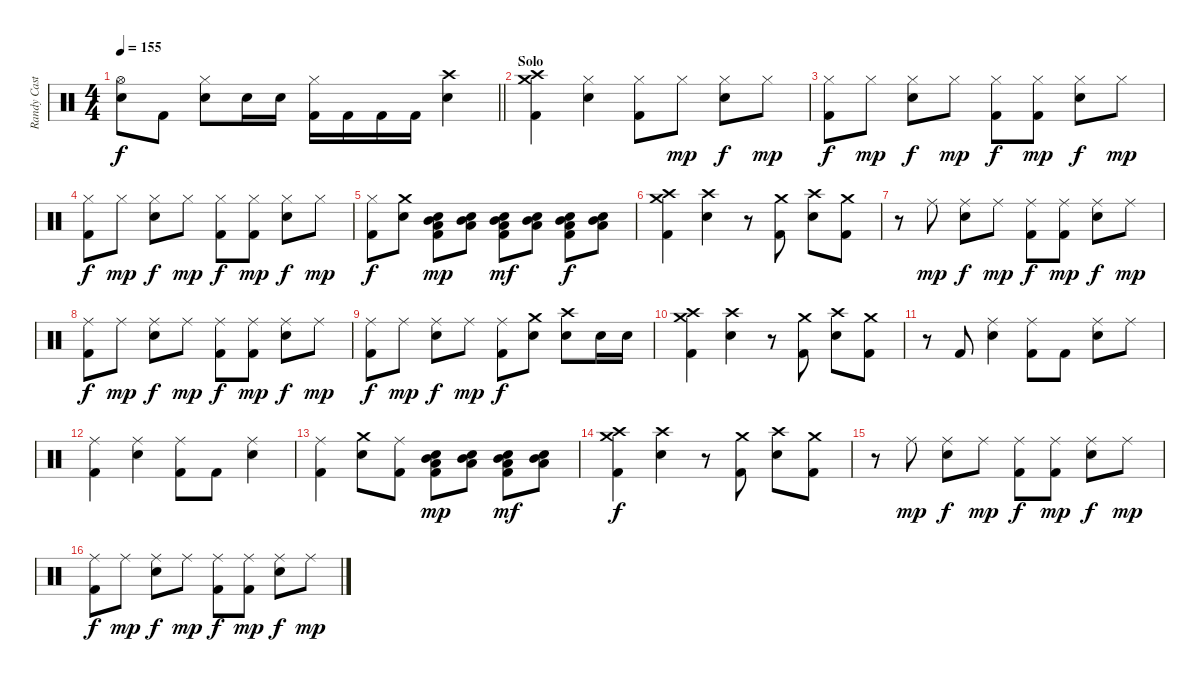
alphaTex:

\track ("Randy Castillo - Drums" "Randy Cast") {instrument percussion}
\staff {score}
\articulation defaults
\ts (4 4)
\tempo 155
\clef neutral
\barLineRight lightlight
\ks c
("Hi-Hat (open)" "Snare (hit) 2").8{dy f} "Kick (hit) 2".8 ("Hi-Hat (closed)" "Snare (hit) 2").8 "Snare (hit) 2".16 "Snare (hit) 2".16 ("Hi-Hat (closed)" "Kick (hit) 2").16 "Kick (hit) 2".16 "Kick (hit) 2".16 "Kick (hit) 2".16 ("Crash high (hit)" "Snare (hit) 2").4 |
\section ("" "Solo")
("Crash medium (hit)" "Crash high (hit)" "Kick (hit) 2").4 ("Hi-Hat (closed)" "Snare (hit) 2").4 ("Hi-Hat (closed)" "Kick (hit) 2").8 "Hi-Hat (closed)".8{dy mp} ("Hi-Hat (closed)" "Snare (hit) 2").8{dy f} "Hi-Hat (closed)".8{dy mp} |
("Hi-Hat (closed)" "Kick (hit) 2").8{dy f} "Hi-Hat (closed)".8{dy mp} ("Hi-Hat (closed)" "Snare (hit) 2").8{dy f} "Hi-Hat (closed)".8{dy mp} ("Hi-Hat (closed)" "Kick (hit) 2").8{dy f} ("Hi-Hat (closed)" "Kick (hit) 2").8{dy mp} ("Hi-Hat (closed)" "Snare (hit) 2").8{dy f} "Hi-Hat (closed)".8{dy mp} |
("Hi-Hat (closed)" "Kick (hit) 2").8{dy f} "Hi-Hat (closed)".8{dy mp} ("Hi-Hat (closed)" "Snare (hit) 2").8{dy f} "Hi-Hat (closed)".8{dy mp} ("Hi-Hat (closed)" "Kick (hit) 2").8{dy f} ("Hi-Hat (closed)" "Kick (hit) 2").8{dy mp} ("Hi-Hat (closed)" "Snare (hit) 2").8{dy f} "Hi-Hat (closed)".8{dy mp} |
("Hi-Hat (closed)" "Kick (hit) 2").8{dy f} ("Crash medium (hit)" "Snare (hit) 2").8 ("Mid Tom (hit)" "Low Tom (hit)" "Snare (hit) 2" "Kick (hit) 2").8{dy mp} ("Mid Tom (hit)" "Low Tom (hit)" "Snare (hit) 2").8 ("Mid Tom (hit)" "Low Tom (hit)" "Snare (hit) 2" "Kick (hit) 2").8{dy mf} ("Mid Tom (hit)" "Low Tom (hit)" "Snare (hit) 2").8 ("Mid Tom (hit)" "Low Tom (hit)" "Snare (hit) 2" "Kick (hit) 2").8{dy f} ("Mid Tom (hit)" "Low Tom (hit)" "Snare (hit) 2").8 |
("Crash medium (hit)" "Crash high (hit)" "Kick (hit) 2").4 ("Crash high (hit)" "Snare (hit) 2").4 r.8 ("Crash medium (hit)" "Kick (hit) 2").8 ("Crash high (hit)" "Snare (hit) 2").8 ("Crash medium (hit)" "Kick (hit) 2").8 |
r.8 "Ride (middle)".8{dy mp} ("Ride (middle)" "Snare (hit) 2").8{dy f} "Ride (middle)".8{dy mp} ("Ride (middle)" "Kick (hit) 2").8{dy f} ("Ride (middle)" "Kick (hit) 2").8{dy mp} ("Ride (middle)" "Snare (hit) 2").8{dy f} "Ride (middle)".8{dy mp} |
("Ride (middle)" "Kick (hit) 2").8{dy f} "Ride (middle)".8{dy mp} ("Ride (middle)" "Snare (hit) 2").8{dy f} "Ride (middle)".8{dy mp} ("Ride (middle)" "Kick (hit) 2").8{dy f} ("Ride (middle)" "Kick (hit) 2").8{dy mp} ("Ride (middle)" "Snare (hit) 2").8{dy f} "Ride (middle)".8{dy mp} |
("Ride (middle)" "Kick (hit) 2").8{dy f} "Ride (middle)".8{dy mp} ("Ride (middle)" "Snare (hit) 2").8{dy f} "Ride (middle)".8{dy mp} ("Ride (middle)" "Kick (hit) 2").8{dy f} ("Crash medium (hit)" "Snare (hit) 2").8 ("Crash high (hit)" "Snare (hit) 2").8 "Snare (hit) 2".16 "Snare (hit) 2".16 |
("Crash medium (hit)" "Crash high (hit)" "Kick (hit) 2").4 ("Crash high (hit)" "Snare (hit) 2").4 r.8 ("Crash medium (hit)" "Kick (hit) 2").8 ("Crash high (hit)" "Snare (hit) 2").8 ("Crash medium (hit)" "Kick (hit) 2").8 |
r.8 "Kick (hit) 2".8 ("Ride (middle)" "Snare (hit) 2").4 ("Ride (middle)" "Kick (hit) 2").8 "Kick (hit) 2".8 ("Ride (middle)" "Snare (hit) 2").8 "Ride (middle)".8 |
("Ride (middle)" "Kick (hit) 2").4 ("Ride (middle)" "Snare (hit) 2").4 ("Ride (middle)" "Kick (hit) 2").8 "Kick (hit) 2".8 ("Ride (middle)" "Snare (hit) 2").4 |
("Ride (middle)" "Kick (hit) 2").4 ("Crash medium (hit)" "Snare (hit) 2").8 ("Ride (middle)" "Kick (hit) 2").8 ("Mid Tom (hit)" "Low Tom (hit)" "Snare (hit) 2" "Kick (hit) 2").8{dy mp} ("Mid Tom (hit)" "Low Tom (hit)" "Snare (hit) 2").8 ("Mid Tom (hit)" "Low Tom (hit)" "Snare (hit) 2" "Kick (hit) 2").8{dy mf} ("Mid Tom (hit)" "Low Tom (hit)" "Snare (hit) 2").8 |
("Crash medium (hit)" "Crash high (hit)" "Kick (hit) 2").4{dy f} ("Crash high (hit)" "Snare (hit) 2").4 r.8 ("Crash medium (hit)" "Kick (hit) 2").8 ("Crash high (hit)" "Snare (hit) 2").8 ("Crash medium (hit)" "Kick (hit) 2").8 |
r.8 "Ride (middle)".8{dy mp} ("Ride (middle)" "Snare (hit) 2").8{dy f} "Ride (middle)".8{dy mp} ("Ride (middle)" "Kick (hit) 2").8{dy f} ("Ride (middle)" "Kick (hit) 2").8{dy mp} ("Ride (middle)" "Snare (hit) 2").8{dy f} "Ride (middle)".8{dy mp} |
("Ride (middle)" "Kick (hit) 2").8{dy f} "Ride (middle)".8{dy mp} ("Ride (middle)" "Snare (hit) 2").8{dy f} "Ride (middle)".8{dy mp} ("Ride (middle)" "Kick (hit) 2").8{dy f} ("Ride (middle)" "Kick (hit) 2").8{dy mp} ("Ride (middle)" "Snare (hit) 2").8{dy f} "Ride (middle)".8{dy mp}
